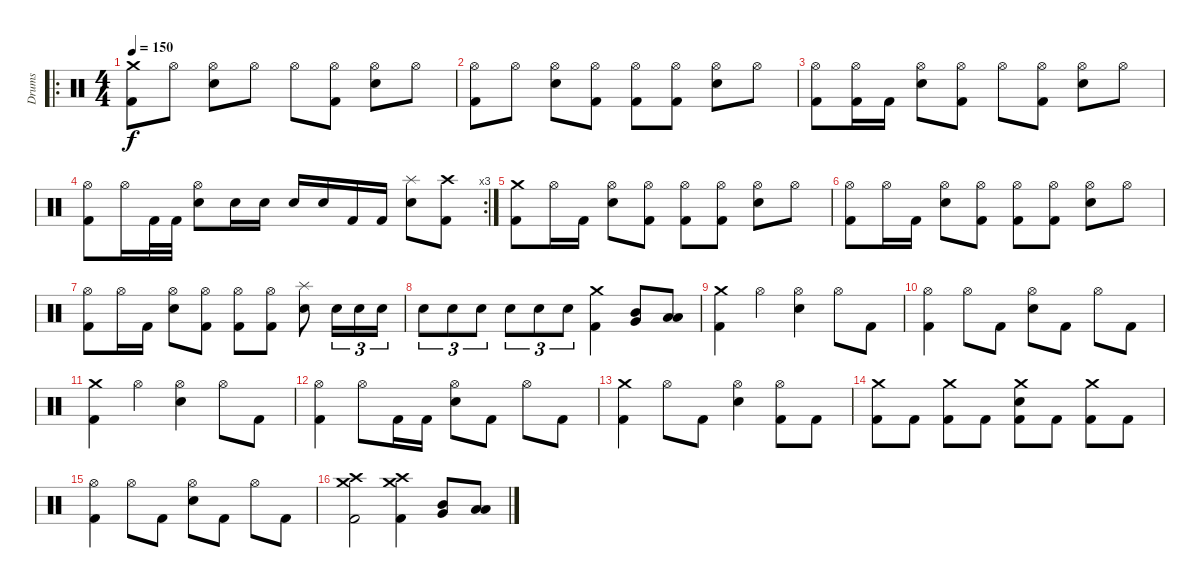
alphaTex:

\track ("Drums" "Drums") {instrument percussion}
\staff {score}
\articulation defaults
\ro
\ts (4 4)
\tempo 150
\clef neutral
\ks c
("Crash medium (hit)" "Kick (hit) 2").8{dy f} "Hi-Hat (open)".8 ("Hi-Hat (open)" "Electric Snare (hit)").8 "Hi-Hat (open)".8 "Hi-Hat (open)".8 ("Hi-Hat (open)" "Kick (hit) 2").8 ("Hi-Hat (open)" "Electric Snare (hit)").8 "Hi-Hat (open)".8 |
("Hi-Hat (open)" "Kick (hit) 2").8 "Hi-Hat (open)".8 ("Hi-Hat (open)" "Electric Snare (hit)").8 ("Hi-Hat (open)" "Kick (hit) 2").8 ("Hi-Hat (open)" "Kick (hit) 2").8 ("Hi-Hat (open)" "Kick (hit) 2").8 ("Hi-Hat (open)" "Electric Snare (hit)").8 "Hi-Hat (open)".8 |
("Hi-Hat (open)" "Kick (hit) 2").8 ("Hi-Hat (open)" "Kick (hit) 2").16 "Kick (hit) 2".16 ("Hi-Hat (open)" "Electric Snare (hit)").8 ("Hi-Hat (open)" "Kick (hit) 2").8 "Hi-Hat (open)".8 ("Hi-Hat (open)" "Kick (hit) 2").8 ("Hi-Hat (open)" "Electric Snare (hit)").8 "Hi-Hat (open)".8 |
\rc 3
("Hi-Hat (open)" "Kick (hit) 2").8 "Hi-Hat (open)".16 "Kick (hit) 2".32 "Kick (hit) 2".32 ("Hi-Hat (open)" "Electric Snare (hit)").8 "Electric Snare (hit)".16 "Electric Snare (hit)".16 "Electric Snare (hit)".16 "Electric Snare (hit)".16 "Kick (hit) 2".16 "Kick (hit) 2".16 ("Splash (hit)" "Electric Snare (hit)").8 ("Crash high (hit)" "Kick (hit) 2").8 |
("Crash medium (hit)" "Kick (hit) 2").8 "Hi-Hat (open)".16 "Kick (hit) 2".16 ("Hi-Hat (open)" "Electric Snare (hit)").8 ("Hi-Hat (open)" "Kick (hit) 2").8 ("Hi-Hat (open)" "Kick (hit) 2").8 ("Hi-Hat (open)" "Kick (hit) 2").8 ("Hi-Hat (open)" "Electric Snare (hit)").8 "Hi-Hat (open)".8 |
("Hi-Hat (open)" "Kick (hit) 2").8 "Hi-Hat (open)".16 "Kick (hit) 2".16 ("Hi-Hat (open)" "Electric Snare (hit)").8 ("Hi-Hat (open)" "Kick (hit) 2").8 ("Hi-Hat (open)" "Kick (hit) 2").8 ("Hi-Hat (open)" "Kick (hit) 2").8 ("Hi-Hat (open)" "Electric Snare (hit)").8 "Hi-Hat (open)".8 |
("Hi-Hat (open)" "Kick (hit) 2").8 "Hi-Hat (open)".16 "Kick (hit) 2".16 ("Hi-Hat (open)" "Electric Snare (hit)").8 ("Hi-Hat (open)" "Kick (hit) 2").8 ("Hi-Hat (open)" "Kick (hit) 2").8 ("Hi-Hat (open)" "Kick (hit) 2").8 ("Splash (hit)" "Electric Snare (hit)").8 "Electric Snare (hit)".16{tu (3 2)} "Electric Snare (hit)".16{tu (3 2)} "Electric Snare (hit)".16{tu (3 2)} |
"Electric Snare (hit)".8{tu (3 2)} "Electric Snare (hit)".8{tu (3 2)} "Electric Snare (hit)".8{tu (3 2)} "Electric Snare (hit)".8{tu (3 2)} "Electric Snare (hit)".8{tu (3 2)} "Electric Snare (hit)".8{tu (3 2)} ("Crash medium (hit)" "Kick (hit) 2").4 ("Very Low Tom (hit)" "Mid Tom (hit)").8 ("Low Floor Tom (hit)" "Low Tom (hit)").8 |
("Crash medium (hit)" "Kick (hit) 2").4 "Hi-Hat (open)".4 ("Hi-Hat (open)" "Electric Snare (hit)").4 "Hi-Hat (open)".8 "Kick (hit) 2".8 |
("Hi-Hat (open)" "Kick (hit) 2").4 "Hi-Hat (open)".8 "Kick (hit) 2".8 ("Hi-Hat (open)" "Electric Snare (hit)").8 "Kick (hit) 2".8 "Hi-Hat (open)".8 "Kick (hit) 2".8 |
("Crash medium (hit)" "Kick (hit) 2").4 "Hi-Hat (open)".4 ("Hi-Hat (open)" "Electric Snare (hit)").4 "Hi-Hat (open)".8 "Kick (hit) 2".8 |
("Hi-Hat (open)" "Kick (hit) 2").4 "Hi-Hat (open)".8 "Kick (hit) 2".16 "Kick (hit) 2".16 ("Hi-Hat (open)" "Electric Snare (hit)").8 "Kick (hit) 2".8 "Hi-Hat (open)".8 "Kick (hit) 2".8 |
("Crash medium (hit)" "Kick (hit) 2").4 "Hi-Hat (open)".8 "Kick (hit) 2".8 ("Hi-Hat (open)" "Electric Snare (hit)").4 ("Hi-Hat (open)" "Kick (hit) 2").8 "Kick (hit) 2".8 |
("Crash medium (hit)" "Kick (hit) 2").8 "Kick (hit) 2".8 ("Crash medium (hit)" "Kick (hit) 2").8 "Kick (hit) 2".8 ("Crash medium (hit)" "Electric Snare (hit)" "Kick (hit) 2").8 "Kick (hit) 2".8 ("Crash medium (hit)" "Kick (hit) 2").8 "Kick (hit) 2".8 |
("Hi-Hat (open)" "Kick (hit) 2").4 "Hi-Hat (open)".8 "Kick (hit) 2".8 ("Hi-Hat (open)" "Electric Snare (hit)").8 "Kick (hit) 2".8 "Hi-Hat (open)".8 "Kick (hit) 2".8 |
("Crash medium (hit)" "Crash high (hit)" "Kick (hit) 2").2 ("Crash high (hit)" "Crash medium (hit)" "Kick (hit) 2").4 ("Mid Tom (hit)" "Very Low Tom (hit)").8 ("Low Tom (hit)" "Low Floor Tom (hit)").8
